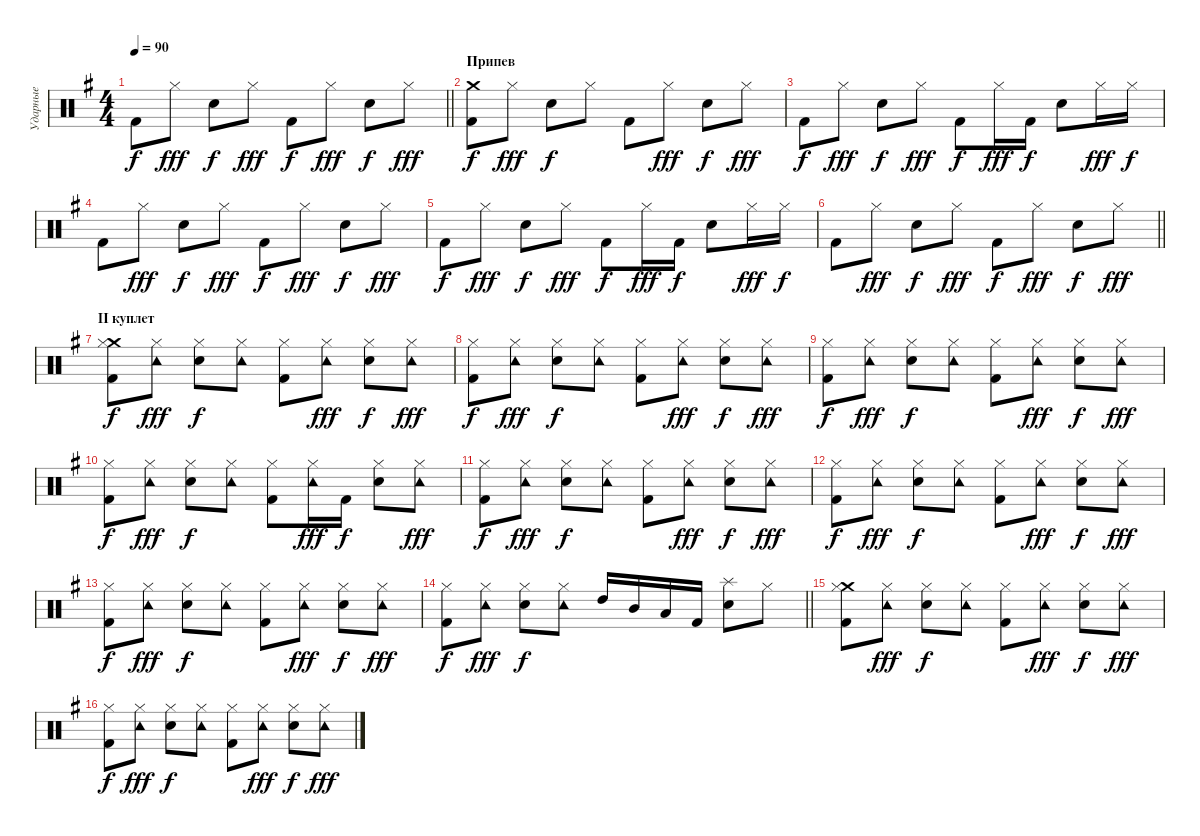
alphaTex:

\track ("Ударные" "Ударные") {instrument percussion}
\staff {score}
\articulation defaults
\ts (4 4)
\tempo 90
\clef neutral
\barLineRight lightlight
\ks eminor "Kick (hit) 2".8{dy f} "Hi-Hat (closed)".8{dy fff} "Snare (hit) 2".8{dy f} "Hi-Hat (closed)".8{dy fff} "Kick (hit) 2".8{dy f} "Hi-Hat (closed)".8{dy fff} "Snare (hit) 2".8{dy f} "Hi-Hat (closed)".8{dy fff}
|
\section ("" "Припев")
("Crash medium (hit)" "Kick (hit) 2").8{dy f} "Hi-Hat (closed)".8{dy fff} "Snare (hit) 2".8{dy f} "Hi-Hat (closed)".8 "Kick (hit) 2".8 "Hi-Hat (closed)".8{dy fff} "Snare (hit) 2".8{dy f} "Hi-Hat (closed)".8{dy fff} |
"Kick (hit) 2".8{dy f} "Hi-Hat (closed)".8{dy fff} "Snare (hit) 2".8{dy f} "Hi-Hat (closed)".8{dy fff} "Kick (hit) 2".8{dy f} "Hi-Hat (closed)".16{dy fff} "Kick (hit) 2".16{dy f} "Snare (hit) 2".8 "Hi-Hat (closed)".16{dy fff} "Hi-Hat (closed)".16{dy f} |
"Kick (hit) 2".8 "Hi-Hat (closed)".8{dy fff} "Snare (hit) 2".8{dy f} "Hi-Hat (closed)".8{dy fff} "Kick (hit) 2".8{dy f} "Hi-Hat (closed)".8{dy fff} "Snare (hit) 2".8{dy f} "Hi-Hat (closed)".8{dy fff} |
"Kick (hit) 2".8{dy f} "Hi-Hat (closed)".8{dy fff} "Snare (hit) 2".8{dy f} "Hi-Hat (closed)".8{dy fff} "Kick (hit) 2".8{dy f} "Hi-Hat (closed)".16{dy fff} "Kick (hit) 2".16{dy f} "Snare (hit) 2".8 "Hi-Hat (closed)".16{dy fff} "Hi-Hat (closed)".16{dy f} |
\barLineRight lightlight "Kick (hit) 2".8 "Hi-Hat (closed)".8{dy fff} "Snare (hit) 2".8{dy f} "Hi-Hat (closed)".8{dy fff} "Kick (hit) 2".8{dy f} "Hi-Hat (closed)".8{dy fff} "Snare (hit) 2".8{dy f} "Hi-Hat (closed)".8{dy fff}
|
\section ("" "II куплет")
("Crash medium (hit)" "Kick (hit) 2" "Hi-Hat (closed)").8{dy f} ("Hi-Hat (closed)" "Tambourine (hit)").8{dy fff} ("Electric Snare (hit)" "Hi-Hat (closed)").8{dy f} ("Hi-Hat (closed)" "Tambourine (hit)").8 ("Kick (hit) 2" "Hi-Hat (closed)").8 ("Hi-Hat (closed)" "Tambourine (hit)").8{dy fff} ("Electric Snare (hit)" "Hi-Hat (closed)").8{dy f} ("Hi-Hat (closed)" "Tambourine (hit)").8{dy fff} |
("Kick (hit) 2" "Hi-Hat (closed)").8{dy f} ("Hi-Hat (closed)" "Tambourine (hit)").8{dy fff} ("Electric Snare (hit)" "Hi-Hat (closed)").8{dy f} ("Hi-Hat (closed)" "Tambourine (hit)").8 ("Kick (hit) 2" "Hi-Hat (closed)").8 ("Hi-Hat (closed)" "Tambourine (hit)").8{dy fff} ("Electric Snare (hit)" "Hi-Hat (closed)").8{dy f} ("Hi-Hat (closed)" "Tambourine (hit)").8{dy fff} |
("Kick (hit) 2" "Hi-Hat (closed)").8{dy f} ("Hi-Hat (closed)" "Tambourine (hit)").8{dy fff} ("Electric Snare (hit)" "Hi-Hat (closed)").8{dy f} ("Hi-Hat (closed)" "Tambourine (hit)").8 ("Kick (hit) 2" "Hi-Hat (closed)").8 ("Hi-Hat (closed)" "Tambourine (hit)").8{dy fff} ("Electric Snare (hit)" "Hi-Hat (closed)").8{dy f} ("Hi-Hat (closed)" "Tambourine (hit)").8{dy fff} |
("Kick (hit) 2" "Hi-Hat (closed)").8{dy f} ("Hi-Hat (closed)" "Tambourine (hit)").8{dy fff} ("Electric Snare (hit)" "Hi-Hat (closed)").8{dy f} ("Hi-Hat (closed)" "Tambourine (hit)").8 ("Kick (hit) 2" "Hi-Hat (closed)").8 ("Hi-Hat (closed)" "Tambourine (hit)").16{dy fff} "Kick (hit) 2".16{dy f} ("Electric Snare (hit)" "Hi-Hat (closed)").8 ("Hi-Hat (closed)" "Tambourine (hit)").8{dy fff} |
("Kick (hit) 2" "Hi-Hat (closed)").8{dy f} ("Hi-Hat (closed)" "Tambourine (hit)").8{dy fff} ("Electric Snare (hit)" "Hi-Hat (closed)").8{dy f} ("Hi-Hat (closed)" "Tambourine (hit)").8 ("Kick (hit) 2" "Hi-Hat (closed)").8 ("Hi-Hat (closed)" "Tambourine (hit)").8{dy fff} ("Electric Snare (hit)" "Hi-Hat (closed)").8{dy f} ("Hi-Hat (closed)" "Tambourine (hit)").8{dy fff} |
("Kick (hit) 2" "Hi-Hat (closed)").8{dy f} ("Hi-Hat (closed)" "Tambourine (hit)").8{dy fff} ("Electric Snare (hit)" "Hi-Hat (closed)").8{dy f} ("Hi-Hat (closed)" "Tambourine (hit)").8 ("Kick (hit) 2" "Hi-Hat (closed)").8 ("Hi-Hat (closed)" "Tambourine (hit)").8{dy fff} ("Electric Snare (hit)" "Hi-Hat (closed)").8{dy f} ("Hi-Hat (closed)" "Tambourine (hit)").8{dy fff} |
("Kick (hit) 2" "Hi-Hat (closed)").8{dy f} ("Hi-Hat (closed)" "Tambourine (hit)").8{dy fff} ("Electric Snare (hit)" "Hi-Hat (closed)").8{dy f} ("Hi-Hat (closed)" "Tambourine (hit)").8 ("Kick (hit) 2" "Hi-Hat (closed)").8 ("Hi-Hat (closed)" "Tambourine (hit)").8{dy fff} ("Electric Snare (hit)" "Hi-Hat (closed)").8{dy f} ("Hi-Hat (closed)" "Tambourine (hit)").8{dy fff} |
\barLineRight lightlight
("Kick (hit) 2" "Hi-Hat (closed)").8{dy f} ("Hi-Hat (closed)" "Tambourine (hit)").8{dy fff} ("Electric Snare (hit)" "Hi-Hat (closed)").8{dy f} ("Hi-Hat (closed)" "Tambourine (hit)").8 "High Tom (hit)".16 "Mid Tom (hit)".16 "Low Tom (hit)".16 "Kick (hit) 2".16 ("Splash (hit)" "Electric Snare (hit)").8 "Hi-Hat (closed)".8 |
("Crash medium (hit)" "Kick (hit) 2" "Hi-Hat (closed)").8 ("Hi-Hat (closed)" "Tambourine (hit)").8{dy fff} ("Electric Snare (hit)" "Hi-Hat (closed)").8{dy f} ("Hi-Hat (closed)" "Tambourine (hit)").8 ("Kick (hit) 2" "Hi-Hat (closed)").8 ("Hi-Hat (closed)" "Tambourine (hit)").8{dy fff} ("Electric Snare (hit)" "Hi-Hat (closed)").8{dy f} ("Hi-Hat (closed)" "Tambourine (hit)").8{dy fff} |
("Kick (hit) 2" "Hi-Hat (closed)").8{dy f} ("Hi-Hat (closed)" "Tambourine (hit)").8{dy fff} ("Electric Snare (hit)" "Hi-Hat (closed)").8{dy f} ("Hi-Hat (closed)" "Tambourine (hit)").8 ("Kick (hit) 2" "Hi-Hat (closed)").8 ("Hi-Hat (closed)" "Tambourine (hit)").8{dy fff} ("Electric Snare (hit)" "Hi-Hat (closed)").8{dy f} ("Hi-Hat (closed)" "Tambourine (hit)").8{dy fff}
